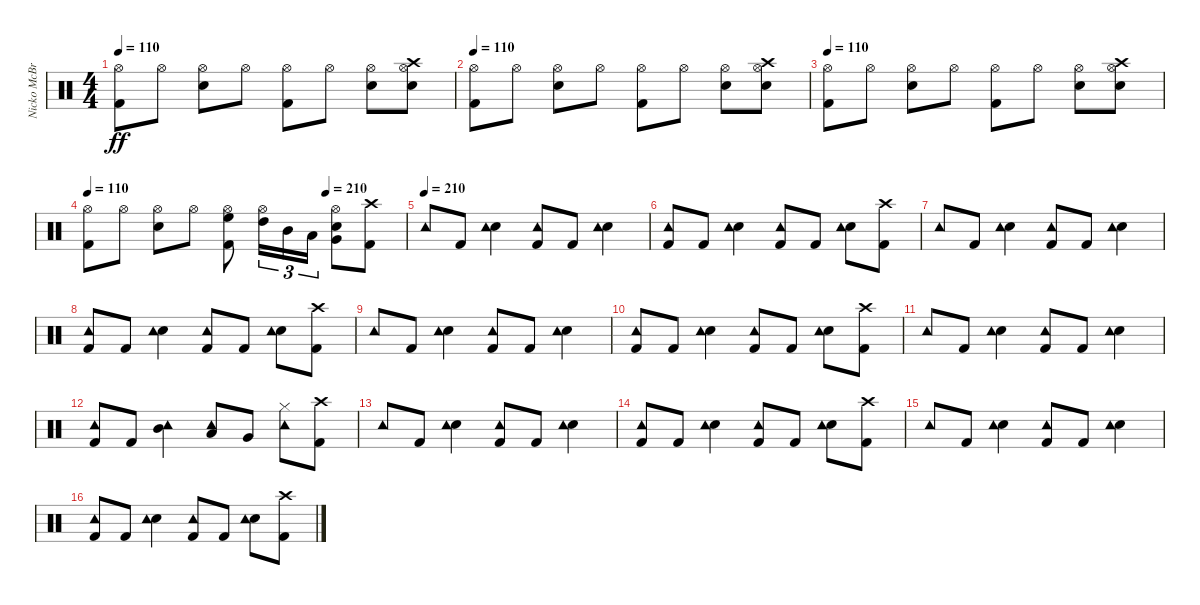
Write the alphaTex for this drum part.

\track ("Nicko McBrain" "Nicko McBr") {instrument percussion}
\staff {score}
\articulation defaults
\ts (4 4)
\tempo 110
\clef neutral
\ks c
("Kick (hit) 2" "Hi-Hat (open)").8{dy ff} "Hi-Hat (open)".8 ("Snare (hit) 2" "Hi-Hat (open)").8 "Hi-Hat (open)".8 ("Kick (hit) 2" "Hi-Hat (open)").8 "Hi-Hat (open)".8 ("Snare (hit) 2" "Hi-Hat (open)").8 ("Snare (hit) 2" "Hi-Hat (open)" "Crash high (hit)").8 |
\tempo 110
("Kick (hit) 2" "Hi-Hat (open)").8 "Hi-Hat (open)".8 ("Snare (hit) 2" "Hi-Hat (open)").8 "Hi-Hat (open)".8 ("Kick (hit) 2" "Hi-Hat (open)").8 "Hi-Hat (open)".8 ("Snare (hit) 2" "Hi-Hat (open)").8 ("Snare (hit) 2" "Hi-Hat (open)" "Crash high (hit)").8 |
\tempo 110
("Kick (hit) 2" "Hi-Hat (open)").8 "Hi-Hat (open)".8 ("Snare (hit) 2" "Hi-Hat (open)").8 "Hi-Hat (open)".8 ("Kick (hit) 2" "Hi-Hat (open)").8 "Hi-Hat (open)".8 ("Snare (hit) 2" "Hi-Hat (open)").8 ("Snare (hit) 2" "Hi-Hat (open)" "Crash high (hit)").8 |
\tempo (210 0.75)
\tempo 110
("Kick (hit) 2" "Hi-Hat (open)").8 "Hi-Hat (open)".8 ("Snare (hit) 2" "Hi-Hat (open)").8 "Hi-Hat (open)".8 ("Kick (hit) 2" "Hi-Hat (open)" "High Floor Tom (hit)").8 ("Hi-Hat (open)" "High Tom (hit)").16{tu (3 2)} "Mid Tom (hit)".16{tu (3 2)} "Low Tom (hit)".16{tu (3 2)} ("Snare (hit) 2" "Very Low Tom (hit)" "Hi-Hat (open)").8 ("Kick (hit) 2" "Crash high (hit)").8 |
\tempo (210)
"Tambourine (hit)".8 "Kick (hit) 2".8 ("Snare (hit) 2" "Tambourine (hit)").4 ("Kick (hit) 2" "Tambourine (hit)").8 "Kick (hit) 2".8 ("Snare (hit) 2" "Tambourine (hit)").4 |
("Kick (hit) 2" "Tambourine (hit)").8 "Kick (hit) 2".8 ("Snare (hit) 2" "Tambourine (hit)").4 ("Kick (hit) 2" "Tambourine (hit)").8 "Kick (hit) 2".8 ("Snare (hit) 2" "Tambourine (hit)").8 ("Kick (hit) 2" "Crash high (hit)").8 |
"Tambourine (hit)".8 "Kick (hit) 2".8 ("Snare (hit) 2" "Tambourine (hit)").4 ("Kick (hit) 2" "Tambourine (hit)").8 "Kick (hit) 2".8 ("Snare (hit) 2" "Tambourine (hit)").4 |
("Kick (hit) 2" "Tambourine (hit)").8 "Kick (hit) 2".8 ("Snare (hit) 2" "Tambourine (hit)").4 ("Kick (hit) 2" "Tambourine (hit)").8 "Kick (hit) 2".8 ("Snare (hit) 2" "Tambourine (hit)").8 ("Kick (hit) 2" "Crash high (hit)").8 |
"Tambourine (hit)".8 "Kick (hit) 2".8 ("Snare (hit) 2" "Tambourine (hit)").4 ("Kick (hit) 2" "Tambourine (hit)").8 "Kick (hit) 2".8 ("Snare (hit) 2" "Tambourine (hit)").4 |
("Kick (hit) 2" "Tambourine (hit)").8 "Kick (hit) 2".8 ("Snare (hit) 2" "Tambourine (hit)").4 ("Kick (hit) 2" "Tambourine (hit)").8 "Kick (hit) 2".8 ("Snare (hit) 2" "Tambourine (hit)").8 ("Kick (hit) 2" "Crash high (hit)").8 |
"Tambourine (hit)".8 "Kick (hit) 2".8 ("Snare (hit) 2" "Tambourine (hit)").4 ("Kick (hit) 2" "Tambourine (hit)").8 "Kick (hit) 2".8 ("Snare (hit) 2" "Tambourine (hit)").4 |
("Kick (hit) 2" "Tambourine (hit)").8 "Kick (hit) 2".8 ("Mid Tom (hit)" "Tambourine (hit)").4 ("Low Tom (hit)" "Tambourine (hit)").8 "Very Low Tom (hit)".8 ("Hi-Hat (closed)" "Tambourine (hit)").8 ("Kick (hit) 2" "Crash high (hit)").8 |
"Tambourine (hit)".8 "Kick (hit) 2".8 ("Snare (hit) 2" "Tambourine (hit)").4 ("Kick (hit) 2" "Tambourine (hit)").8 "Kick (hit) 2".8 ("Snare (hit) 2" "Tambourine (hit)").4 |
("Kick (hit) 2" "Tambourine (hit)").8 "Kick (hit) 2".8 ("Snare (hit) 2" "Tambourine (hit)").4 ("Kick (hit) 2" "Tambourine (hit)").8 "Kick (hit) 2".8 ("Snare (hit) 2" "Tambourine (hit)").8 ("Kick (hit) 2" "Crash high (hit)").8 |
"Tambourine (hit)".8 "Kick (hit) 2".8 ("Snare (hit) 2" "Tambourine (hit)").4 ("Kick (hit) 2" "Tambourine (hit)").8 "Kick (hit) 2".8 ("Snare (hit) 2" "Tambourine (hit)").4 |
("Kick (hit) 2" "Tambourine (hit)").8 "Kick (hit) 2".8 ("Snare (hit) 2" "Tambourine (hit)").4 ("Kick (hit) 2" "Tambourine (hit)").8 "Kick (hit) 2".8 ("Snare (hit) 2" "Tambourine (hit)").8 ("Kick (hit) 2" "Crash high (hit)").8
